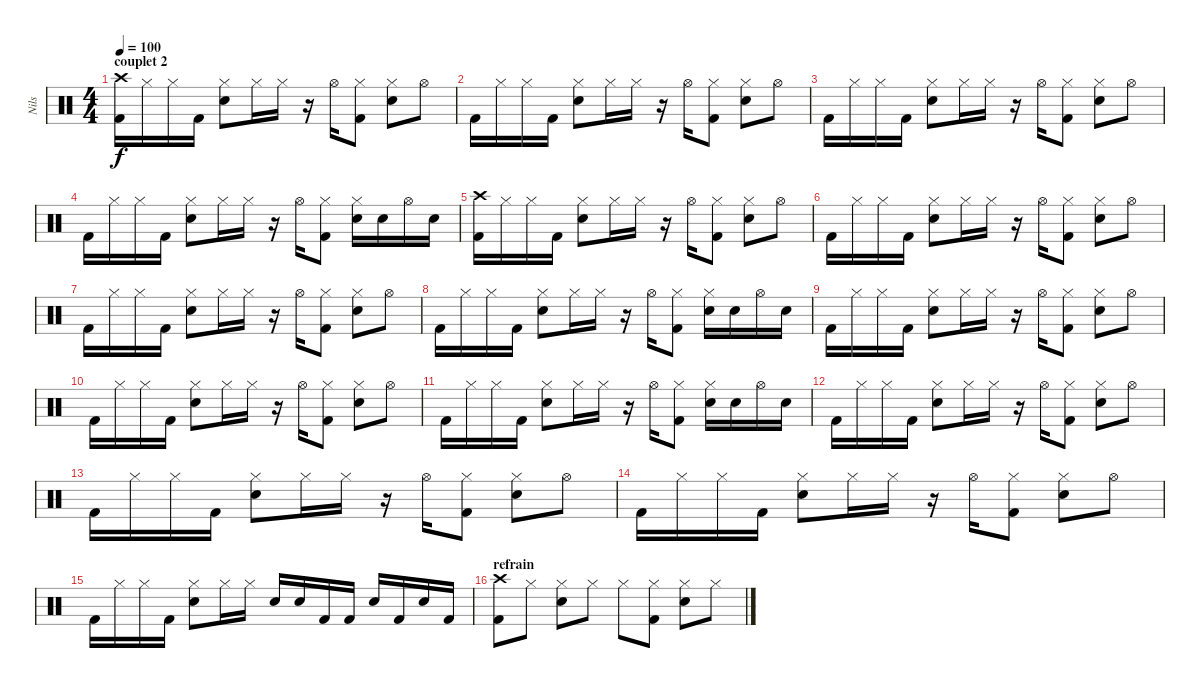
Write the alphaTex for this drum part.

\track ("Nils" "Nils") {instrument percussion}
\staff {score}
\articulation defaults
\ts (4 4)
\section ("" "couplet 2")
\tempo 100
\clef neutral
\ks c
("Crash high (hit)" "Kick (hit) 2").16{dy f} "Hi-Hat (closed)".16 "Hi-Hat (closed)".16 "Kick (hit) 2".16 ("Hi-Hat (closed)" "Snare (hit) 2").8 "Hi-Hat (closed)".16 "Hi-Hat (closed)".16 r.16 "Hi-Hat (open)".16 ("Hi-Hat (closed)" "Kick (hit) 2").8 ("Hi-Hat (closed)" "Snare (hit) 2").8 "Hi-Hat (open)".8 |
"Kick (hit) 2".16 "Hi-Hat (closed)".16 "Hi-Hat (closed)".16 "Kick (hit) 2".16 ("Hi-Hat (closed)" "Snare (hit) 2").8 "Hi-Hat (closed)".16 "Hi-Hat (closed)".16 r.16 "Hi-Hat (open)".16 ("Hi-Hat (closed)" "Kick (hit) 2").8 ("Hi-Hat (closed)" "Snare (hit) 2").8 "Hi-Hat (open)".8 |
"Kick (hit) 2".16 "Hi-Hat (closed)".16 "Hi-Hat (closed)".16 "Kick (hit) 2".16 ("Hi-Hat (closed)" "Snare (hit) 2").8 "Hi-Hat (closed)".16 "Hi-Hat (closed)".16 r.16 "Hi-Hat (open)".16 ("Hi-Hat (closed)" "Kick (hit) 2").8 ("Hi-Hat (closed)" "Snare (hit) 2").8 "Hi-Hat (open)".8 |
"Kick (hit) 2".16 "Hi-Hat (closed)".16 "Hi-Hat (closed)".16 "Kick (hit) 2".16 ("Hi-Hat (closed)" "Snare (hit) 2").8 "Hi-Hat (closed)".16 "Hi-Hat (closed)".16 r.16 "Hi-Hat (open)".16 ("Hi-Hat (closed)" "Kick (hit) 2").8 ("Hi-Hat (closed)" "Snare (hit) 2").16 "Snare (hit) 2".16 "Hi-Hat (open)".16 "Snare (hit) 2".16 |
("Crash high (hit)" "Kick (hit) 2").16 "Hi-Hat (closed)".16 "Hi-Hat (closed)".16 "Kick (hit) 2".16 ("Hi-Hat (closed)" "Snare (hit) 2").8 "Hi-Hat (closed)".16 "Hi-Hat (closed)".16 r.16 "Hi-Hat (open)".16 ("Hi-Hat (closed)" "Kick (hit) 2").8 ("Hi-Hat (closed)" "Snare (hit) 2").8 "Hi-Hat (open)".8 |
"Kick (hit) 2".16 "Hi-Hat (closed)".16 "Hi-Hat (closed)".16 "Kick (hit) 2".16 ("Hi-Hat (closed)" "Snare (hit) 2").8 "Hi-Hat (closed)".16 "Hi-Hat (closed)".16 r.16 "Hi-Hat (open)".16 ("Hi-Hat (closed)" "Kick (hit) 2").8 ("Hi-Hat (closed)" "Snare (hit) 2").8 "Hi-Hat (open)".8 |
"Kick (hit) 2".16 "Hi-Hat (closed)".16 "Hi-Hat (closed)".16 "Kick (hit) 2".16 ("Hi-Hat (closed)" "Snare (hit) 2").8 "Hi-Hat (closed)".16 "Hi-Hat (closed)".16 r.16 "Hi-Hat (open)".16 ("Hi-Hat (closed)" "Kick (hit) 2").8 ("Hi-Hat (closed)" "Snare (hit) 2").8 "Hi-Hat (open)".8 |
"Kick (hit) 2".16 "Hi-Hat (closed)".16 "Hi-Hat (closed)".16 "Kick (hit) 2".16 ("Hi-Hat (closed)" "Snare (hit) 2").8 "Hi-Hat (closed)".16 "Hi-Hat (closed)".16 r.16 "Hi-Hat (open)".16 ("Hi-Hat (closed)" "Kick (hit) 2").8 ("Hi-Hat (closed)" "Snare (hit) 2").16 "Snare (hit) 2".16 "Hi-Hat (open)".16 "Snare (hit) 2".16 |
"Kick (hit) 2".16 "Hi-Hat (closed)".16 "Hi-Hat (closed)".16 "Kick (hit) 2".16 ("Hi-Hat (closed)" "Snare (hit) 2").8 "Hi-Hat (closed)".16 "Hi-Hat (closed)".16 r.16 "Hi-Hat (open)".16 ("Hi-Hat (closed)" "Kick (hit) 2").8 ("Hi-Hat (closed)" "Snare (hit) 2").8 "Hi-Hat (open)".8 |
"Kick (hit) 2".16 "Hi-Hat (closed)".16 "Hi-Hat (closed)".16 "Kick (hit) 2".16 ("Hi-Hat (closed)" "Snare (hit) 2").8 "Hi-Hat (closed)".16 "Hi-Hat (closed)".16 r.16 "Hi-Hat (open)".16 ("Hi-Hat (closed)" "Kick (hit) 2").8 ("Hi-Hat (closed)" "Snare (hit) 2").8 "Hi-Hat (open)".8 |
"Kick (hit) 2".16 "Hi-Hat (closed)".16 "Hi-Hat (closed)".16 "Kick (hit) 2".16 ("Hi-Hat (closed)" "Snare (hit) 2").8 "Hi-Hat (closed)".16 "Hi-Hat (closed)".16 r.16 "Hi-Hat (open)".16 ("Hi-Hat (closed)" "Kick (hit) 2").8 ("Hi-Hat (closed)" "Snare (hit) 2").16 "Snare (hit) 2".16 "Hi-Hat (open)".16 "Snare (hit) 2".16 |
"Kick (hit) 2".16 "Hi-Hat (closed)".16 "Hi-Hat (closed)".16 "Kick (hit) 2".16 ("Hi-Hat (closed)" "Snare (hit) 2").8 "Hi-Hat (closed)".16 "Hi-Hat (closed)".16 r.16 "Hi-Hat (open)".16 ("Hi-Hat (closed)" "Kick (hit) 2").8 ("Hi-Hat (closed)" "Snare (hit) 2").8 "Hi-Hat (open)".8 |
"Kick (hit) 2".16 "Hi-Hat (closed)".16 "Hi-Hat (closed)".16 "Kick (hit) 2".16 ("Hi-Hat (closed)" "Snare (hit) 2").8 "Hi-Hat (closed)".16 "Hi-Hat (closed)".16 r.16 "Hi-Hat (open)".16 ("Hi-Hat (closed)" "Kick (hit) 2").8 ("Hi-Hat (closed)" "Snare (hit) 2").8 "Hi-Hat (open)".8 |
"Kick (hit) 2".16 "Hi-Hat (closed)".16 "Hi-Hat (closed)".16 "Kick (hit) 2".16 ("Hi-Hat (closed)" "Snare (hit) 2").8 "Hi-Hat (closed)".16 "Hi-Hat (closed)".16 r.16 "Hi-Hat (open)".16 ("Hi-Hat (closed)" "Kick (hit) 2").8 ("Hi-Hat (closed)" "Snare (hit) 2").8 "Hi-Hat (open)".8 |
"Kick (hit) 2".16 "Hi-Hat (closed)".16 "Hi-Hat (closed)".16 "Kick (hit) 2".16 ("Hi-Hat (closed)" "Snare (hit) 2").8 "Hi-Hat (closed)".16 "Hi-Hat (closed)".16 "Snare (hit) 2".16 "Snare (hit) 2".16 "Kick (hit) 2".16 "Kick (hit) 2".16 "Snare (hit) 2".16 "Kick (hit) 2".16 "Snare (hit) 2".16 "Kick (hit) 2".16 |
\section ("" "refrain")
("Crash high (hit)" "Kick (hit) 2").8 "Hi-Hat (closed)".8 ("Hi-Hat (closed)" "Snare (hit) 2").8 "Hi-Hat (closed)".8 "Hi-Hat (closed)".8 ("Hi-Hat (closed)" "Kick (hit) 2").8 ("Hi-Hat (closed)" "Snare (hit) 2").8 "Hi-Hat (closed)".8
